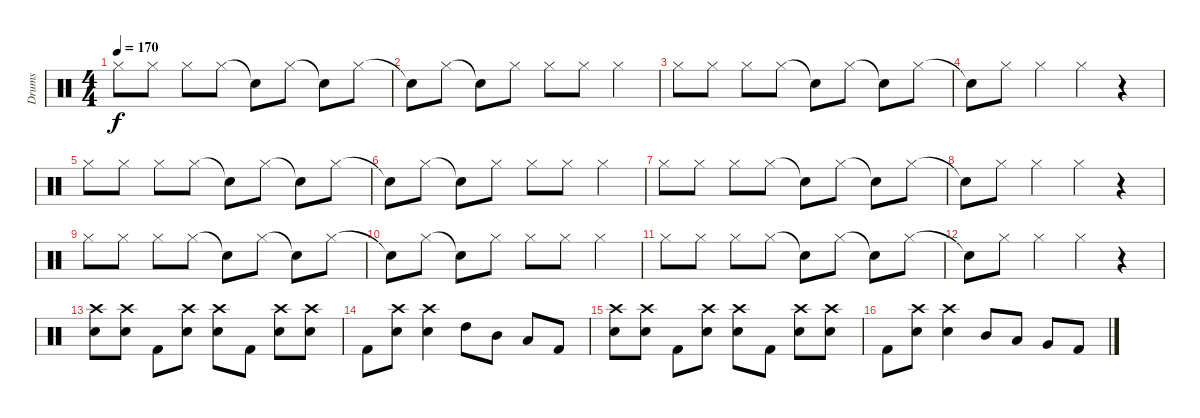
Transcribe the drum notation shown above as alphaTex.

\track ("Drums" "Drums") {instrument percussion}
\staff {score}
\articulation defaults
\ts (4 4)
\tempo 170
\clef neutral
\ks c "Hi-Hat (closed)".8{dy f} "Hi-Hat (closed)".8 "Hi-Hat (closed)".8 "Hi-Hat (closed)".8 "Snare (hit)"{t}.8 "Hi-Hat (closed)".8 "Snare (hit)"{t}.8 "Hi-Hat (closed)".8
|
"Snare (hit)"{t}.8 "Hi-Hat (closed)".8 "Snare (hit)"{t}.8 "Hi-Hat (closed)".8 "Hi-Hat (closed)".8 "Hi-Hat (closed)".8 "Hi-Hat (closed)".4 |
"Hi-Hat (closed)".8 "Hi-Hat (closed)".8 "Hi-Hat (closed)".8 "Hi-Hat (closed)".8 "Snare (hit)"{t}.8 "Hi-Hat (closed)".8 "Snare (hit)"{t}.8 "Hi-Hat (closed)".8 |
"Snare (hit)"{t}.8 "Hi-Hat (closed)".8 "Hi-Hat (closed)".4 "Hi-Hat (closed)".4 r.4 |
"Hi-Hat (closed)".8 "Hi-Hat (closed)".8 "Hi-Hat (closed)".8 "Hi-Hat (closed)".8 "Snare (hit)"{t}.8 "Hi-Hat (closed)".8 "Snare (hit)"{t}.8 "Hi-Hat (closed)".8 |
"Snare (hit)"{t}.8 "Hi-Hat (closed)".8 "Snare (hit)"{t}.8 "Hi-Hat (closed)".8 "Hi-Hat (closed)".8 "Hi-Hat (closed)".8 "Hi-Hat (closed)".4 |
"Hi-Hat (closed)".8 "Hi-Hat (closed)".8 "Hi-Hat (closed)".8 "Hi-Hat (closed)".8 "Snare (hit)"{t}.8 "Hi-Hat (closed)".8 "Snare (hit)"{t}.8 "Hi-Hat (closed)".8 |
"Snare (hit)"{t}.8 "Hi-Hat (closed)".8 "Hi-Hat (closed)".4 "Hi-Hat (closed)".4 r.4 |
"Hi-Hat (closed)".8 "Hi-Hat (closed)".8 "Hi-Hat (closed)".8 "Hi-Hat (closed)".8 "Snare (hit)"{t}.8 "Hi-Hat (closed)".8 "Snare (hit)"{t}.8 "Hi-Hat (closed)".8 |
"Snare (hit)"{t}.8 "Hi-Hat (closed)".8 "Snare (hit)"{t}.8 "Hi-Hat (closed)".8 "Hi-Hat (closed)".8 "Hi-Hat (closed)".8 "Hi-Hat (closed)".4 |
"Hi-Hat (closed)".8 "Hi-Hat (closed)".8 "Hi-Hat (closed)".8 "Hi-Hat (closed)".8 "Snare (hit)"{t}.8 "Hi-Hat (closed)".8 "Snare (hit)"{t}.8 "Hi-Hat (closed)".8 |
"Snare (hit)"{t}.8 "Hi-Hat (closed)".8 "Hi-Hat (closed)".4 "Hi-Hat (closed)".4 r.4 |
("Crash high (hit)" "Electric Snare (hit)").8 ("Crash high (hit)" "Electric Snare (hit)").8 "Kick (hit) 2".8 ("Crash high (hit)" "Electric Snare (hit)").8 ("Crash high (hit)" "Electric Snare (hit)").8 "Kick (hit) 2".8 ("Crash high (hit)" "Electric Snare (hit)").8 ("Crash high (hit)" "Electric Snare (hit)").8 |
"Kick (hit) 2".8 ("Crash high (hit)" "Electric Snare (hit)").8 ("Crash high (hit)" "Electric Snare (hit)").4 "High Tom (hit)".8 "Mid Tom (hit)".8 "Low Tom (hit)".8 "Kick (hit) 2".8 |
("Crash high (hit)" "Electric Snare (hit)").8 ("Crash high (hit)" "Electric Snare (hit)").8 "Kick (hit) 2".8 ("Crash high (hit)" "Electric Snare (hit)").8 ("Crash high (hit)" "Electric Snare (hit)").8 "Kick (hit) 2".8 ("Crash high (hit)" "Electric Snare (hit)").8 ("Crash high (hit)" "Electric Snare (hit)").8 |
"Kick (hit) 2".8 ("Crash high (hit)" "Electric Snare (hit)").8 ("Crash high (hit)" "Electric Snare (hit)").4 "Mid Tom (hit)".8 "Low Tom (hit)".8 "Very Low Tom (hit)".8 "Kick (hit) 2".8
